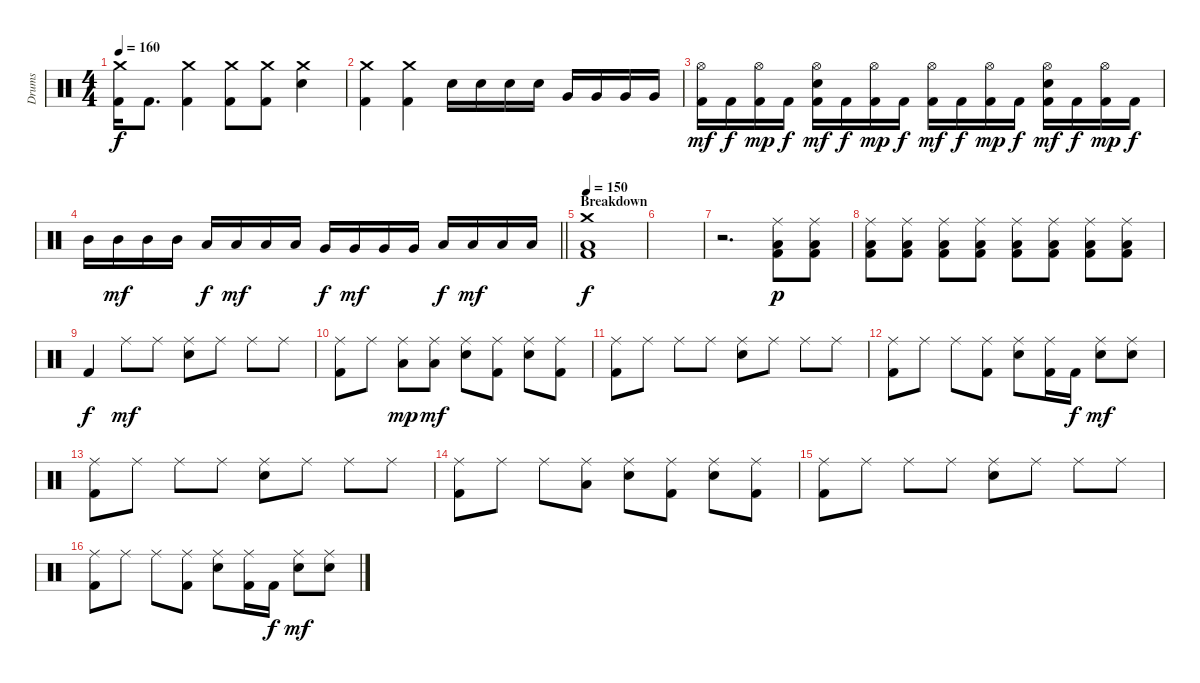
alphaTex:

\track ("Drums" "Drums") {instrument percussion}
\staff {score}
\articulation defaults
\ts (4 4)
\tempo 160
\clef neutral
\ks c
("Crash medium (hit)" "Kick (hit) 2").16{dy f} "Kick (hit) 2".8{d} ("Crash medium (hit)" "Kick (hit) 2").4 ("Crash medium (hit)" "Kick (hit) 2").8 ("Crash medium (hit)" "Kick (hit) 2").8 ("Crash medium (hit)" "Snare (hit) 2").4 |
("Crash medium (hit)" "Kick (hit) 2").4 ("Crash medium (hit)" "Kick (hit) 2").4 "Snare (hit) 2".16 "Snare (hit) 2".16 "Snare (hit) 2".16 "Snare (hit) 2".16 "Very Low Tom (hit)".16 "Very Low Tom (hit)".16 "Very Low Tom (hit)".16 "Very Low Tom (hit)".16 |
("Hi-Hat (open)" "Kick (hit) 2").16{dy mf} "Kick (hit) 2".16{dy f} ("Hi-Hat (open)" "Kick (hit) 2").16{dy mp} "Kick (hit) 2".16{dy f} ("Hi-Hat (open)" "Snare (hit) 2" "Kick (hit) 2").16{dy mf} "Kick (hit) 2".16{dy f} ("Hi-Hat (open)" "Kick (hit) 2").16{dy mp} "Kick (hit) 2".16{dy f} ("Hi-Hat (open)" "Kick (hit) 2").16{dy mf} "Kick (hit) 2".16{dy f} ("Hi-Hat (open)" "Kick (hit) 2").16{dy mp} "Kick (hit) 2".16{dy f} ("Hi-Hat (open)" "Snare (hit) 2" "Kick (hit) 2").16{dy mf} "Kick (hit) 2".16{dy f} ("Hi-Hat (open)" "Kick (hit) 2").16{dy mp} "Kick (hit) 2".16{dy f} |
\barLineRight lightlight "Mid Tom (hit)".16 "Mid Tom (hit)".16{dy mf} "Mid Tom (hit)".16 "Mid Tom (hit)".16 "Low Tom (hit)".16{dy f} "Low Tom (hit)".16{dy mf} "Low Tom (hit)".16 "Low Tom (hit)".16 "Very Low Tom (hit)".16{dy f} "Very Low Tom (hit)".16{dy mf} "Very Low Tom (hit)".16 "Very Low Tom (hit)".16 "Low Floor Tom (hit)".16{dy f} "Low Floor Tom (hit)".16{dy mf} "Low Floor Tom (hit)".16 "Low Floor Tom (hit)".16
|
\section ("" "Breakdown")
\tempo 150
("Crash medium (hit)" "Low Floor Tom (hit)" "Kick (hit) 2").1{dy f} |
|
r.2{d} ("Ride (middle)" "Low Floor Tom (hit)" "Kick (hit) 2").8{dy p} ("Ride (middle)" "Low Floor Tom (hit)" "Kick (hit) 2").8 |
("Ride (middle)" "Low Floor Tom (hit)" "Kick (hit) 2").8 ("Ride (middle)" "Low Floor Tom (hit)" "Kick (hit) 2").8 ("Ride (middle)" "Low Floor Tom (hit)" "Kick (hit) 2").8 ("Ride (middle)" "Low Floor Tom (hit)" "Kick (hit) 2").8 ("Ride (middle)" "Low Floor Tom (hit)" "Kick (hit) 2").8 ("Ride (middle)" "Low Floor Tom (hit)" "Kick (hit) 2").8 ("Ride (middle)" "Low Floor Tom (hit)" "Kick (hit) 2").8 ("Ride (middle)" "Low Floor Tom (hit)" "Kick (hit) 2").8 |
"Kick (hit) 2".4{dy f} "Ride (middle)".8{dy mf} "Ride (middle)".8 ("Ride (middle)" "Snare (hit) 2").8 "Ride (middle)".8 "Ride (middle)".8 "Ride (middle)".8 |
("Ride (middle)" "Kick (hit) 2").8 "Ride (middle)".8 ("Ride (middle)" "Low Floor Tom (hit)").8{dy mp} ("Ride (middle)" "Low Floor Tom (hit)").8{dy mf} ("Ride (middle)" "Snare (hit) 2").8 ("Ride (middle)" "Kick (hit) 2").8 ("Ride (middle)" "Snare (hit) 2").8 ("Ride (middle)" "Kick (hit) 2").8 |
("Ride (middle)" "Kick (hit) 2").8 "Ride (middle)".8 "Ride (middle)".8 "Ride (middle)".8 ("Ride (middle)" "Snare (hit) 2").8 "Ride (middle)".8 "Ride (middle)".8 "Ride (middle)".8 |
("Ride (middle)" "Kick (hit) 2").8 "Ride (middle)".8 "Ride (middle)".8 ("Ride (middle)" "Kick (hit) 2").8 ("Ride (middle)" "Snare (hit) 2").8 ("Ride (middle)" "Kick (hit) 2").16 "Kick (hit) 2".16{dy f} ("Ride (middle)" "Snare (hit) 2").8{dy mf} ("Ride (middle)" "Snare (hit) 2").8 |
("Ride (middle)" "Kick (hit) 2").8 "Ride (middle)".8 "Ride (middle)".8 "Ride (middle)".8 ("Ride (middle)" "Snare (hit) 2").8 "Ride (middle)".8 "Ride (middle)".8 "Ride (middle)".8 |
("Ride (middle)" "Kick (hit) 2").8 "Ride (middle)".8 "Ride (middle)".8 ("Ride (middle)" "Low Floor Tom (hit)").8 ("Ride (middle)" "Snare (hit) 2").8 ("Ride (middle)" "Kick (hit) 2").8 ("Ride (middle)" "Snare (hit) 2").8 ("Ride (middle)" "Kick (hit) 2").8 |
("Ride (middle)" "Kick (hit) 2").8 "Ride (middle)".8 "Ride (middle)".8 "Ride (middle)".8 ("Ride (middle)" "Snare (hit) 2").8 "Ride (middle)".8 "Ride (middle)".8 "Ride (middle)".8 |
("Ride (middle)" "Kick (hit) 2").8 "Ride (middle)".8 "Ride (middle)".8 ("Ride (middle)" "Kick (hit) 2").8 ("Ride (middle)" "Snare (hit) 2").8 ("Ride (middle)" "Kick (hit) 2").16 "Kick (hit) 2".16{dy f} ("Ride (middle)" "Snare (hit) 2").8{dy mf} ("Ride (middle)" "Snare (hit) 2").8
